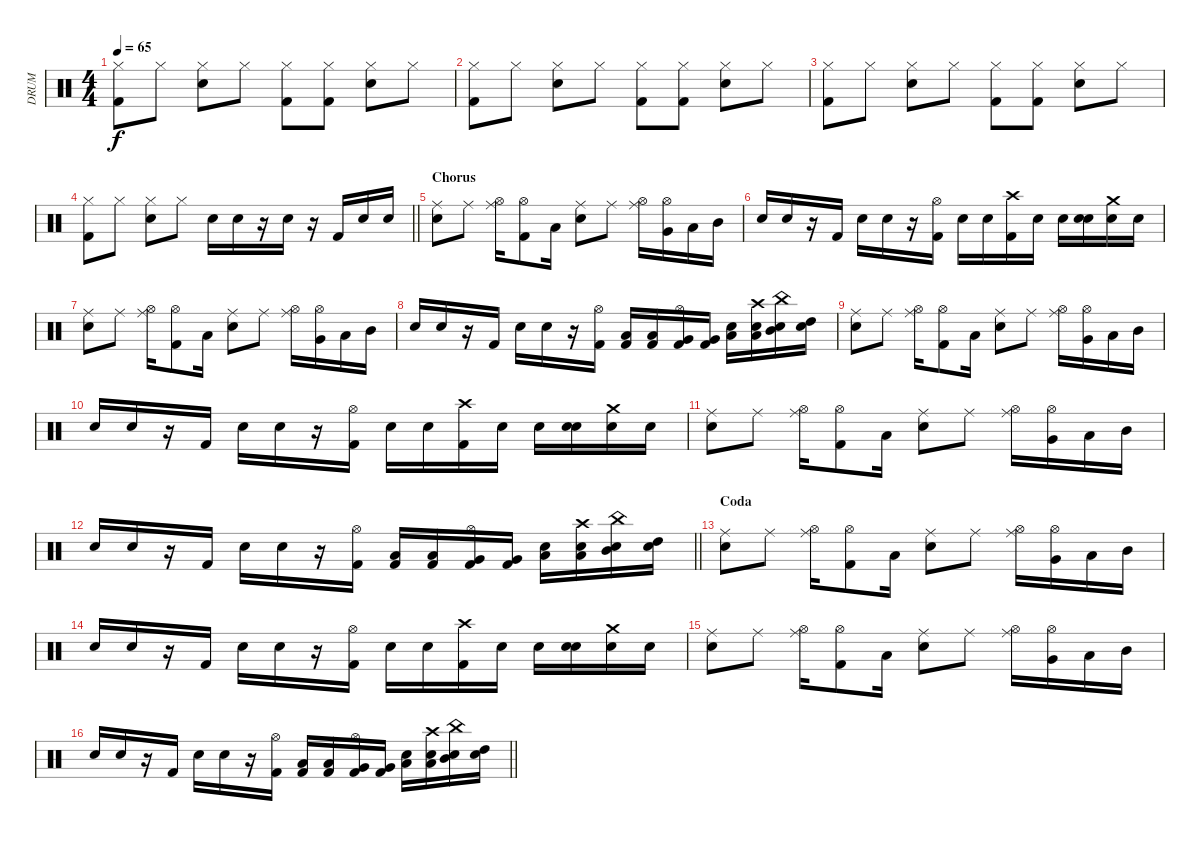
\track ("DRUM" "DRUM") {instrument percussion}
\staff {score}
\articulation defaults
\ts (4 4)
\tempo 65
\clef neutral
\ks c
("Kick (hit) 2" "Hi-Hat (closed)").8{dy f} "Hi-Hat (closed)".8 ("Electric Snare (hit)" "Hi-Hat (closed)").8 "Hi-Hat (closed)".8 ("Kick (hit) 2" "Hi-Hat (closed)").8 ("Kick (hit) 2" "Hi-Hat (closed)").8 ("Electric Snare (hit)" "Hi-Hat (closed)").8 "Hi-Hat (closed)".8 |
("Kick (hit) 2" "Hi-Hat (closed)").8 "Hi-Hat (closed)".8 ("Electric Snare (hit)" "Hi-Hat (closed)").8 "Hi-Hat (closed)".8 ("Kick (hit) 2" "Hi-Hat (closed)").8 ("Kick (hit) 2" "Hi-Hat (closed)").8 ("Electric Snare (hit)" "Hi-Hat (closed)").8 "Hi-Hat (closed)".8 |
("Kick (hit) 2" "Hi-Hat (closed)").8 "Hi-Hat (closed)".8 ("Electric Snare (hit)" "Hi-Hat (closed)").8 "Hi-Hat (closed)".8 ("Kick (hit) 2" "Hi-Hat (closed)").8 ("Kick (hit) 2" "Hi-Hat (closed)").8 ("Electric Snare (hit)" "Hi-Hat (closed)").8 "Hi-Hat (closed)".8 |
\barLineRight lightlight
("Kick (hit) 2" "Hi-Hat (closed)").8 "Hi-Hat (closed)".8 ("Electric Snare (hit)" "Hi-Hat (closed)").8 "Hi-Hat (closed)".8 "Electric Snare (hit)".16 "Electric Snare (hit)".16 r.16 "Electric Snare (hit)".16 r.16 "Kick (hit) 2".16 "Electric Snare (hit)".16 "Electric Snare (hit)".16 |
\section ("" "Chorus")
("Snare (hit) 2" "Ride (middle)").8 "Ride (middle)".8 ("Hi-Hat (open)" "Ride (middle)").16 ("Hi-Hat (open)" "Kick (hit) 2").8 "Low Tom (hit)".16 ("Snare (hit) 2" "Ride (middle)").8 "Ride (middle)".8 ("Hi-Hat (open)" "Ride (middle)").16 ("Hi-Hat (open)" "Very Low Tom (hit)").16 "Low Tom (hit)".16 "Mid Tom (hit)".16 |
"Electric Snare (hit)".16 "Electric Snare (hit)".16 r.16 "Kick (hit) 2".16 "Electric Snare (hit)".16 "Electric Snare (hit)".16 r.16 ("Kick (hit) 2" "Hi-Hat (open)").16 "Electric Snare (hit)".16 "Electric Snare (hit)".16 ("Kick (hit) 2" "Crash high (hit)").16 "Electric Snare (hit)".16 "Electric Snare (hit)".16 ("Electric Snare (hit)" "Electric Snare (hit)").16{bu 60} ("Electric Snare (hit)" "Crash medium (hit)").16 "Snare (hit) 2".16 |
("Electric Snare (hit)" "Ride (middle)").8 "Ride (middle)".8 ("Hi-Hat (open)" "Ride (middle)").16 ("Hi-Hat (open)" "Kick (hit) 2").8 "Low Tom (hit)".16 ("Snare (hit) 2" "Ride (middle)").8 "Ride (middle)".8 ("Hi-Hat (open)" "Ride (middle)").16 ("Hi-Hat (open)" "Very Low Tom (hit)").16 "Low Tom (hit)".16 "Mid Tom (hit)".16 |
"Electric Snare (hit)".16 "Electric Snare (hit)".16 r.16 "Kick (hit) 2".16 "Electric Snare (hit)".16 "Electric Snare (hit)".16 r.16 ("Kick (hit) 2" "Hi-Hat (open)").16 ("Kick (hit) 2" "Low Floor Tom (hit)").16 ("Kick (hit) 2" "Low Floor Tom (hit)").16 ("Kick (hit) 2" "Very Low Tom (hit)" "Hi-Hat (open)").16 ("Kick (hit) 2" "Very Low Tom (hit)").16 ("Electric Snare (hit)" "Low Tom (hit)").16 ("Electric Snare (hit)" "Low Tom (hit)" "Crash high (hit)").16 ("Snare (hit) 2" "Mid Tom (hit)" "China (hit)").16 ("Snare (hit) 2" "High Tom (hit)").16 |
("Snare (hit) 2" "Ride (middle)").8 "Ride (middle)".8 ("Hi-Hat (open)" "Ride (middle)").16 ("Hi-Hat (open)" "Kick (hit) 2").8 "Low Tom (hit)".16 ("Snare (hit) 2" "Ride (middle)").8 "Ride (middle)".8 ("Hi-Hat (open)" "Ride (middle)").16 ("Hi-Hat (open)" "Very Low Tom (hit)").16 "Low Tom (hit)".16 "Mid Tom (hit)".16 |
"Electric Snare (hit)".16 "Electric Snare (hit)".16 r.16 "Kick (hit) 2".16 "Electric Snare (hit)".16 "Electric Snare (hit)".16 r.16 ("Kick (hit) 2" "Hi-Hat (open)").16 "Electric Snare (hit)".16 "Electric Snare (hit)".16 ("Kick (hit) 2" "Crash high (hit)").16 "Electric Snare (hit)".16 "Electric Snare (hit)".16 ("Electric Snare (hit)" "Electric Snare (hit)").16{bu 60} ("Electric Snare (hit)" "Crash medium (hit)").16 "Snare (hit) 2".16 |
("Electric Snare (hit)" "Ride (middle)").8 "Ride (middle)".8 ("Hi-Hat (open)" "Ride (middle)").16 ("Hi-Hat (open)" "Kick (hit) 2").8 "Low Tom (hit)".16 ("Snare (hit) 2" "Ride (middle)").8 "Ride (middle)".8 ("Hi-Hat (open)" "Ride (middle)").16 ("Hi-Hat (open)" "Very Low Tom (hit)").16 "Low Tom (hit)".16 "Mid Tom (hit)".16 |
\barLineRight lightlight "Electric Snare (hit)".16 "Electric Snare (hit)".16
r.16 "Kick (hit) 2".16 "Electric Snare (hit)".16 "Electric Snare (hit)".16 r.16 ("Kick (hit) 2" "Hi-Hat (open)").16 ("Kick (hit) 2" "Low Floor Tom (hit)").16 ("Kick (hit) 2" "Low Floor Tom (hit)").16 ("Kick (hit) 2" "Very Low Tom (hit)" "Hi-Hat (open)").16 ("Kick (hit) 2" "Very Low Tom (hit)").16 ("Electric Snare (hit)" "Low Tom (hit)").16 ("Electric Snare (hit)" "Low Tom (hit)" "Crash high (hit)").16 ("Snare (hit) 2" "Mid Tom (hit)" "China (hit)").16 ("Snare (hit) 2" "High Tom (hit)").16 |
\section ("" "Coda")
("Snare (hit) 2" "Ride (middle)").8 "Ride (middle)".8 ("Hi-Hat (open)" "Ride (middle)").16 ("Hi-Hat (open)" "Kick (hit) 2").8 "Low Tom (hit)".16 ("Snare (hit) 2" "Ride (middle)").8 "Ride (middle)".8 ("Hi-Hat (open)" "Ride (middle)").16 ("Hi-Hat (open)" "Very Low Tom (hit)").16 "Low Tom (hit)".16 "Mid Tom (hit)".16 |
"Electric Snare (hit)".16 "Electric Snare (hit)".16 r.16 "Kick (hit) 2".16 "Electric Snare (hit)".16 "Electric Snare (hit)".16 r.16 ("Kick (hit) 2" "Hi-Hat (open)").16 "Electric Snare (hit)".16 "Electric Snare (hit)".16 ("Kick (hit) 2" "Crash high (hit)").16 "Electric Snare (hit)".16 "Electric Snare (hit)".16 ("Electric Snare (hit)" "Electric Snare (hit)").16{bu 60} ("Electric Snare (hit)" "Crash medium (hit)").16 "Snare (hit) 2".16 |
("Electric Snare (hit)" "Ride (middle)").8 "Ride (middle)".8 ("Hi-Hat (open)" "Ride (middle)").16 ("Hi-Hat (open)" "Kick (hit) 2").8 "Low Tom (hit)".16 ("Snare (hit) 2" "Ride (middle)").8 "Ride (middle)".8 ("Hi-Hat (open)" "Ride (middle)").16 ("Hi-Hat (open)" "Very Low Tom (hit)").16 "Low Tom (hit)".16 "Mid Tom (hit)".16 |
\barLineRight lightlight "Electric Snare (hit)".16 "Electric Snare (hit)".16
r.16 "Kick (hit) 2".16 "Electric Snare (hit)".16 "Electric Snare (hit)".16 r.16 ("Kick (hit) 2" "Hi-Hat (open)").16 ("Kick (hit) 2" "Low Floor Tom (hit)").16 ("Kick (hit) 2" "Low Floor Tom (hit)").16 ("Kick (hit) 2" "Very Low Tom (hit)" "Hi-Hat (open)").16 ("Kick (hit) 2" "Very Low Tom (hit)").16 ("Electric Snare (hit)" "Low Tom (hit)").16 ("Electric Snare (hit)" "Low Tom (hit)" "Crash high (hit)").16 ("Snare (hit) 2" "Mid Tom (hit)" "China (hit)").16 ("Snare (hit) 2" "High Tom (hit)").16
